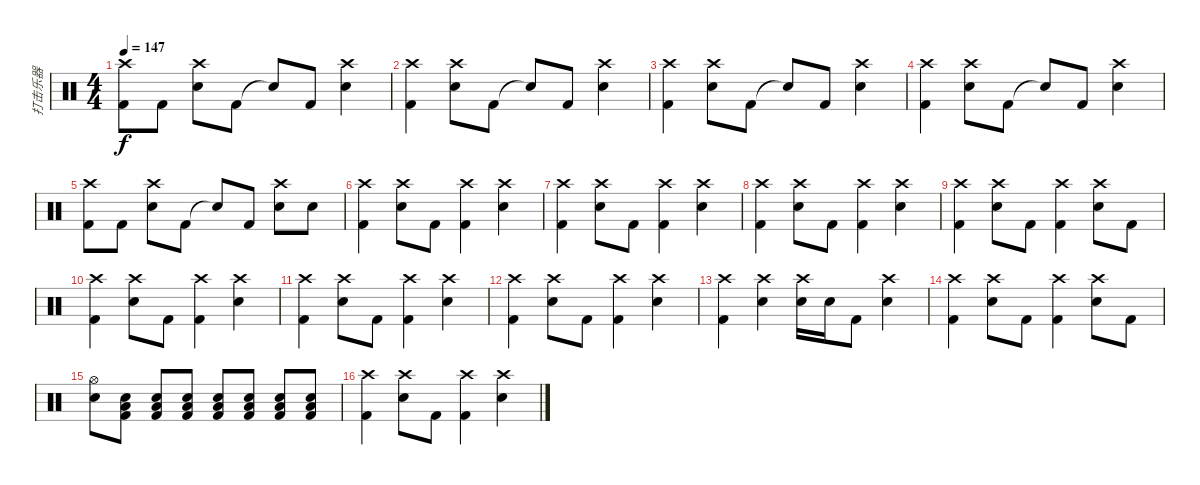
\track ("打击乐器" "打击乐器") {instrument percussion}
\staff {score}
\articulation defaults
\ts (4 4)
\tempo 147
\clef neutral
\ks c
("Crash high (hit)" "Kick (hit) 2").8{dy f} "Kick (hit) 2".8 ("Crash high (hit)" "Snare (hit) 2").8 "Kick (hit) 2".8 "Snare (hit)"{t}.8 "Kick (hit) 2".8 ("Crash high (hit)" "Snare (hit) 2").4 |
("Crash high (hit)" "Kick (hit) 2").4 ("Crash high (hit)" "Snare (hit) 2").8 "Kick (hit) 2".8 "Snare (hit)"{t}.8 "Kick (hit) 2".8 ("Crash high (hit)" "Snare (hit) 2").4 |
("Crash high (hit)" "Kick (hit) 2").4 ("Crash high (hit)" "Snare (hit) 2").8 "Kick (hit) 2".8 "Snare (hit)"{t}.8 "Kick (hit) 2".8 ("Crash high (hit)" "Snare (hit) 2").4 |
("Crash high (hit)" "Kick (hit) 2").4 ("Crash high (hit)" "Snare (hit) 2").8 "Kick (hit) 2".8 "Snare (hit)"{t}.8 "Kick (hit) 2".8 ("Crash high (hit)" "Snare (hit) 2").4 |
("Crash high (hit)" "Kick (hit) 2").8 "Kick (hit) 2".8 ("Crash high (hit)" "Snare (hit) 2").8 "Kick (hit) 2".8 "Snare (hit)"{t}.8 "Kick (hit) 2".8 ("Crash high (hit)" "Snare (hit) 2").8 "Snare (hit) 2".8 |
("Crash high (hit)" "Kick (hit) 2").4 ("Crash high (hit)" "Snare (hit) 2").8 "Kick (hit) 2".8 ("Crash high (hit)" "Kick (hit) 2").4 ("Crash high (hit)" "Snare (hit) 2").4 |
("Crash high (hit)" "Kick (hit) 2").4 ("Crash high (hit)" "Snare (hit) 2").8 "Kick (hit) 2".8 ("Crash high (hit)" "Kick (hit) 2").4 ("Crash high (hit)" "Snare (hit) 2").4 |
("Crash high (hit)" "Kick (hit) 2").4 ("Crash high (hit)" "Snare (hit) 2").8 "Kick (hit) 2".8 ("Crash high (hit)" "Kick (hit) 2").4 ("Crash high (hit)" "Snare (hit) 2").4 |
("Crash high (hit)" "Kick (hit) 2").4 ("Crash high (hit)" "Snare (hit) 2").8 "Kick (hit) 2".8 ("Crash high (hit)" "Kick (hit) 2").4 ("Crash high (hit)" "Snare (hit) 2").8 "Kick (hit) 2".8 |
("Crash high (hit)" "Kick (hit) 2").4 ("Crash high (hit)" "Snare (hit) 2").8 "Kick (hit) 2".8 ("Crash high (hit)" "Kick (hit) 2").4 ("Crash high (hit)" "Snare (hit) 2").4 |
("Crash high (hit)" "Kick (hit) 2").4 ("Crash high (hit)" "Snare (hit) 2").8 "Kick (hit) 2".8 ("Crash high (hit)" "Kick (hit) 2").4 ("Crash high (hit)" "Snare (hit) 2").4 |
("Crash high (hit)" "Kick (hit) 2").4 ("Crash high (hit)" "Snare (hit) 2").8 "Kick (hit) 2".8 ("Crash high (hit)" "Kick (hit) 2").4 ("Crash high (hit)" "Snare (hit) 2").4 |
("Crash high (hit)" "Kick (hit) 2").4 ("Crash high (hit)" "Snare (hit) 2").4 ("Crash high (hit)" "Snare (hit) 2").16 "Snare (hit) 2".16 "Kick (hit) 2".8 ("Crash high (hit)" "Snare (hit) 2").4 |
("Crash high (hit)" "Kick (hit) 2").4 ("Crash high (hit)" "Snare (hit) 2").8 "Kick (hit) 2".8 ("Crash high (hit)" "Kick (hit) 2").4 ("Crash high (hit)" "Snare (hit) 2").8 "Kick (hit) 2".8 |
("Hi-Hat (open)" "Snare (hit) 2").8 ("Low Floor Tom (hit)" "Snare (hit) 2" "Kick (hit) 2").8 ("Low Floor Tom (hit)" "Snare (hit) 2" "Kick (hit) 2").8 ("Low Floor Tom (hit)" "Snare (hit) 2" "Kick (hit) 2").8 ("Low Floor Tom (hit)" "Snare (hit) 2" "Kick (hit) 2").8 ("Low Floor Tom (hit)" "Snare (hit) 2" "Kick (hit) 2").8 ("Low Floor Tom (hit)" "Snare (hit) 2" "Kick (hit) 2").8 ("Low Floor Tom (hit)" "Snare (hit) 2" "Kick (hit) 2").8 |
("Crash high (hit)" "Kick (hit) 2").4 ("Crash high (hit)" "Snare (hit) 2").8 "Kick (hit) 2".8 ("Crash high (hit)" "Kick (hit) 2").4 ("Crash high (hit)" "Snare (hit) 2").4
